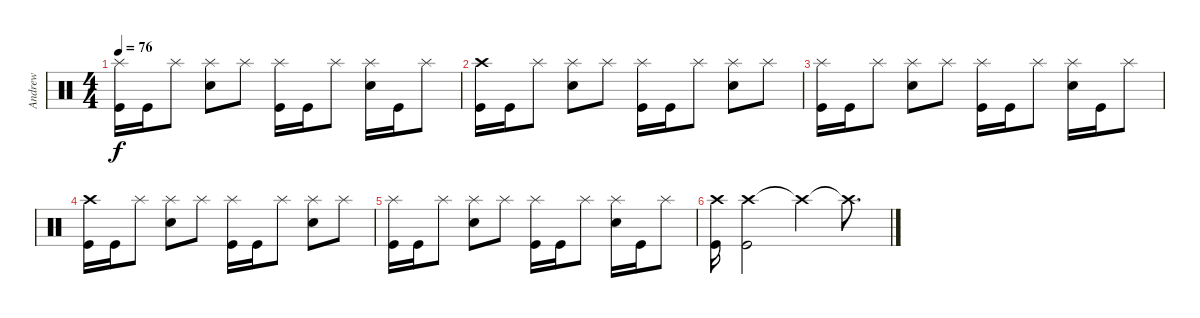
\track ("Andrew" "Andrew") {instrument percussion}
\staff {score}
\articulation defaults
\ts (4 4)
\tempo 76
\clef neutral
\ks c
("Splash (hit)" "Kick (hit)").16{dy f} "Kick (hit)".16 "Splash (hit)".8 ("Splash (hit)" "Snare (hit) 2").8 "Splash (hit)".8 ("Splash (hit)" "Kick (hit)").16 "Kick (hit)".16 "Splash (hit)".8 ("Splash (hit)" "Snare (hit) 2").16 "Kick (hit)".16 "Splash (hit)".8 |
("Crash high (hit)" "Kick (hit)").16 "Kick (hit)".16 "Splash (hit)".8 ("Splash (hit)" "Snare (hit) 2").8 "Splash (hit)".8 ("Splash (hit)" "Kick (hit)").16 "Kick (hit)".16 "Splash (hit)".8 ("Splash (hit)" "Snare (hit) 2").8 "Splash (hit)".8 |
("Splash (hit)" "Kick (hit)").16 "Kick (hit)".16 "Splash (hit)".8 ("Splash (hit)" "Snare (hit) 2").8 "Splash (hit)".8 ("Splash (hit)" "Kick (hit)").16 "Kick (hit)".16 "Splash (hit)".8 ("Splash (hit)" "Snare (hit) 2").16 "Kick (hit)".16 "Splash (hit)".8 |
("Crash high (hit)" "Kick (hit)").16 "Kick (hit)".16 "Splash (hit)".8 ("Splash (hit)" "Snare (hit) 2").8 "Splash (hit)".8 ("Splash (hit)" "Kick (hit)").16 "Kick (hit)".16 "Splash (hit)".8 ("Splash (hit)" "Snare (hit) 2").8 "Splash (hit)".8 |
("Splash (hit)" "Kick (hit)").16 "Kick (hit)".16 "Splash (hit)".8 ("Splash (hit)" "Snare (hit) 2").8 "Splash (hit)".8 ("Splash (hit)" "Kick (hit)").16 "Kick (hit)".16 "Splash (hit)".8 ("Splash (hit)" "Snare (hit) 2").16 "Kick (hit)".16 "Splash (hit)".8 |
("Crash high (hit)" "Kick (hit)").16 ("Crash high (hit)" "Kick (hit)").2 "Crash high (hit)"{t}.4 "Crash high (hit)"{t}.8{d}
